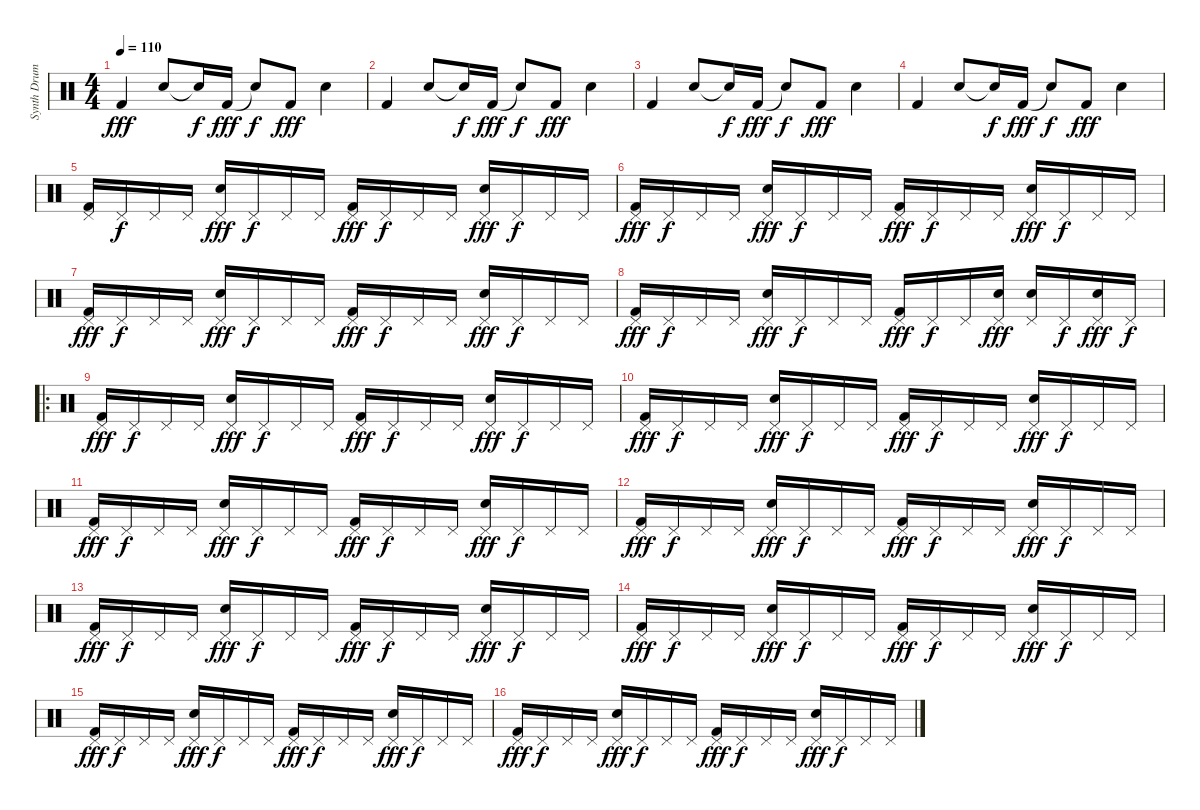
\track ("Synth Drums" "Synth Drum") {instrument percussion}
\staff {score}
\articulation defaults
\ts (4 4)
\tempo 110
\clef neutral
\ks c "Kick (hit) 2".4{dy fff} "Snare (hit) 2".8 "Snare (hit)"{t}.16{dy f} "Kick (hit) 2".16{dy fff} "Snare (hit)"{t}.8{dy f} "Kick (hit) 2".8{dy fff} "Snare (hit) 2".4
|
"Kick (hit) 2".4 "Snare (hit) 2".8 "Snare (hit)"{t}.16{dy f} "Kick (hit) 2".16{dy fff} "Snare (hit)"{t}.8{dy f} "Kick (hit) 2".8{dy fff} "Snare (hit) 2".4 |
"Kick (hit) 2".4 "Snare (hit) 2".8 "Snare (hit)"{t}.16{dy f} "Kick (hit) 2".16{dy fff} "Snare (hit)"{t}.8{dy f} "Kick (hit) 2".8{dy fff} "Snare (hit) 2".4 |
"Kick (hit) 2".4 "Snare (hit) 2".8 "Snare (hit)"{t}.16{dy f} "Kick (hit) 2".16{dy fff} "Snare (hit)"{t}.8{dy f} "Kick (hit) 2".8{dy fff} "Snare (hit) 2".4 |
("Pedal Hi-Hat (hit)" "Kick (hit) 2").16 "Pedal Hi-Hat (hit)".16{dy f} "Pedal Hi-Hat (hit)".16 "Pedal Hi-Hat (hit)".16 ("Pedal Hi-Hat (hit)" "Snare (hit) 2").16{dy fff} "Pedal Hi-Hat (hit)".16{dy f} "Pedal Hi-Hat (hit)".16 "Pedal Hi-Hat (hit)".16 ("Pedal Hi-Hat (hit)" "Kick (hit) 2").16{dy fff} "Pedal Hi-Hat (hit)".16{dy f} "Pedal Hi-Hat (hit)".16 "Pedal Hi-Hat (hit)".16 ("Pedal Hi-Hat (hit)" "Snare (hit) 2").16{dy fff} "Pedal Hi-Hat (hit)".16{dy f} "Pedal Hi-Hat (hit)".16 "Pedal Hi-Hat (hit)".16 |
("Pedal Hi-Hat (hit)" "Kick (hit) 2").16{dy fff} "Pedal Hi-Hat (hit)".16{dy f} "Pedal Hi-Hat (hit)".16 "Pedal Hi-Hat (hit)".16 ("Pedal Hi-Hat (hit)" "Snare (hit) 2").16{dy fff} "Pedal Hi-Hat (hit)".16{dy f} "Pedal Hi-Hat (hit)".16 "Pedal Hi-Hat (hit)".16 ("Pedal Hi-Hat (hit)" "Kick (hit) 2").16{dy fff} "Pedal Hi-Hat (hit)".16{dy f} "Pedal Hi-Hat (hit)".16 "Pedal Hi-Hat (hit)".16 ("Pedal Hi-Hat (hit)" "Snare (hit) 2").16{dy fff} "Pedal Hi-Hat (hit)".16{dy f} "Pedal Hi-Hat (hit)".16 "Pedal Hi-Hat (hit)".16 |
("Pedal Hi-Hat (hit)" "Kick (hit) 2").16{dy fff} "Pedal Hi-Hat (hit)".16{dy f} "Pedal Hi-Hat (hit)".16 "Pedal Hi-Hat (hit)".16 ("Pedal Hi-Hat (hit)" "Snare (hit) 2").16{dy fff} "Pedal Hi-Hat (hit)".16{dy f} "Pedal Hi-Hat (hit)".16 "Pedal Hi-Hat (hit)".16 ("Pedal Hi-Hat (hit)" "Kick (hit) 2").16{dy fff} "Pedal Hi-Hat (hit)".16{dy f} "Pedal Hi-Hat (hit)".16 "Pedal Hi-Hat (hit)".16 ("Pedal Hi-Hat (hit)" "Snare (hit) 2").16{dy fff} "Pedal Hi-Hat (hit)".16{dy f} "Pedal Hi-Hat (hit)".16 "Pedal Hi-Hat (hit)".16 |
("Pedal Hi-Hat (hit)" "Kick (hit) 2").16{dy fff} "Pedal Hi-Hat (hit)".16{dy f} "Pedal Hi-Hat (hit)".16 "Pedal Hi-Hat (hit)".16 ("Pedal Hi-Hat (hit)" "Snare (hit) 2").16{dy fff} "Pedal Hi-Hat (hit)".16{dy f} "Pedal Hi-Hat (hit)".16 "Pedal Hi-Hat (hit)".16 ("Pedal Hi-Hat (hit)" "Kick (hit) 2").16{dy fff} "Pedal Hi-Hat (hit)".16{dy f} "Pedal Hi-Hat (hit)".16 ("Pedal Hi-Hat (hit)" "Snare (hit) 2").16{dy fff} ("Pedal Hi-Hat (hit)" "Snare (hit) 2").16 "Pedal Hi-Hat (hit)".16{dy f} ("Pedal Hi-Hat (hit)" "Snare (hit) 2").16{dy fff} "Pedal Hi-Hat (hit)".16{dy f} |
\ro
("Pedal Hi-Hat (hit)" "Kick (hit) 2").16{dy fff} "Pedal Hi-Hat (hit)".16{dy f} "Pedal Hi-Hat (hit)".16 "Pedal Hi-Hat (hit)".16 ("Pedal Hi-Hat (hit)" "Snare (hit) 2").16{dy fff} "Pedal Hi-Hat (hit)".16{dy f} "Pedal Hi-Hat (hit)".16 "Pedal Hi-Hat (hit)".16 ("Pedal Hi-Hat (hit)" "Kick (hit) 2").16{dy fff} "Pedal Hi-Hat (hit)".16{dy f} "Pedal Hi-Hat (hit)".16 "Pedal Hi-Hat (hit)".16 ("Pedal Hi-Hat (hit)" "Snare (hit) 2").16{dy fff} "Pedal Hi-Hat (hit)".16{dy f} "Pedal Hi-Hat (hit)".16 "Pedal Hi-Hat (hit)".16 |
("Pedal Hi-Hat (hit)" "Kick (hit) 2").16{dy fff} "Pedal Hi-Hat (hit)".16{dy f} "Pedal Hi-Hat (hit)".16 "Pedal Hi-Hat (hit)".16 ("Pedal Hi-Hat (hit)" "Snare (hit) 2").16{dy fff} "Pedal Hi-Hat (hit)".16{dy f} "Pedal Hi-Hat (hit)".16 "Pedal Hi-Hat (hit)".16 ("Pedal Hi-Hat (hit)" "Kick (hit) 2").16{dy fff} "Pedal Hi-Hat (hit)".16{dy f} "Pedal Hi-Hat (hit)".16 "Pedal Hi-Hat (hit)".16 ("Pedal Hi-Hat (hit)" "Snare (hit) 2").16{dy fff} "Pedal Hi-Hat (hit)".16{dy f} "Pedal Hi-Hat (hit)".16 "Pedal Hi-Hat (hit)".16 |
("Pedal Hi-Hat (hit)" "Kick (hit) 2").16{dy fff} "Pedal Hi-Hat (hit)".16{dy f} "Pedal Hi-Hat (hit)".16 "Pedal Hi-Hat (hit)".16 ("Pedal Hi-Hat (hit)" "Snare (hit) 2").16{dy fff} "Pedal Hi-Hat (hit)".16{dy f} "Pedal Hi-Hat (hit)".16 "Pedal Hi-Hat (hit)".16 ("Pedal Hi-Hat (hit)" "Kick (hit) 2").16{dy fff} "Pedal Hi-Hat (hit)".16{dy f} "Pedal Hi-Hat (hit)".16 "Pedal Hi-Hat (hit)".16 ("Pedal Hi-Hat (hit)" "Snare (hit) 2").16{dy fff} "Pedal Hi-Hat (hit)".16{dy f} "Pedal Hi-Hat (hit)".16 "Pedal Hi-Hat (hit)".16 |
("Pedal Hi-Hat (hit)" "Kick (hit) 2").16{dy fff} "Pedal Hi-Hat (hit)".16{dy f} "Pedal Hi-Hat (hit)".16 "Pedal Hi-Hat (hit)".16 ("Pedal Hi-Hat (hit)" "Snare (hit) 2").16{dy fff} "Pedal Hi-Hat (hit)".16{dy f} "Pedal Hi-Hat (hit)".16 "Pedal Hi-Hat (hit)".16 ("Pedal Hi-Hat (hit)" "Kick (hit) 2").16{dy fff} "Pedal Hi-Hat (hit)".16{dy f} "Pedal Hi-Hat (hit)".16 "Pedal Hi-Hat (hit)".16 ("Pedal Hi-Hat (hit)" "Snare (hit) 2").16{dy fff} "Pedal Hi-Hat (hit)".16{dy f} "Pedal Hi-Hat (hit)".16 "Pedal Hi-Hat (hit)".16 |
("Pedal Hi-Hat (hit)" "Kick (hit) 2").16{dy fff} "Pedal Hi-Hat (hit)".16{dy f} "Pedal Hi-Hat (hit)".16 "Pedal Hi-Hat (hit)".16 ("Pedal Hi-Hat (hit)" "Snare (hit) 2").16{dy fff} "Pedal Hi-Hat (hit)".16{dy f} "Pedal Hi-Hat (hit)".16 "Pedal Hi-Hat (hit)".16 ("Pedal Hi-Hat (hit)" "Kick (hit) 2").16{dy fff} "Pedal Hi-Hat (hit)".16{dy f} "Pedal Hi-Hat (hit)".16 "Pedal Hi-Hat (hit)".16 ("Pedal Hi-Hat (hit)" "Snare (hit) 2").16{dy fff} "Pedal Hi-Hat (hit)".16{dy f} "Pedal Hi-Hat (hit)".16 "Pedal Hi-Hat (hit)".16 |
("Pedal Hi-Hat (hit)" "Kick (hit) 2").16{dy fff} "Pedal Hi-Hat (hit)".16{dy f} "Pedal Hi-Hat (hit)".16 "Pedal Hi-Hat (hit)".16 ("Pedal Hi-Hat (hit)" "Snare (hit) 2").16{dy fff} "Pedal Hi-Hat (hit)".16{dy f} "Pedal Hi-Hat (hit)".16 "Pedal Hi-Hat (hit)".16 ("Pedal Hi-Hat (hit)" "Kick (hit) 2").16{dy fff} "Pedal Hi-Hat (hit)".16{dy f} "Pedal Hi-Hat (hit)".16 "Pedal Hi-Hat (hit)".16 ("Pedal Hi-Hat (hit)" "Snare (hit) 2").16{dy fff} "Pedal Hi-Hat (hit)".16{dy f} "Pedal Hi-Hat (hit)".16 "Pedal Hi-Hat (hit)".16 |
("Pedal Hi-Hat (hit)" "Kick (hit) 2").16{dy fff} "Pedal Hi-Hat (hit)".16{dy f} "Pedal Hi-Hat (hit)".16 "Pedal Hi-Hat (hit)".16 ("Pedal Hi-Hat (hit)" "Snare (hit) 2").16{dy fff} "Pedal Hi-Hat (hit)".16{dy f} "Pedal Hi-Hat (hit)".16 "Pedal Hi-Hat (hit)".16 ("Pedal Hi-Hat (hit)" "Kick (hit) 2").16{dy fff} "Pedal Hi-Hat (hit)".16{dy f} "Pedal Hi-Hat (hit)".16 "Pedal Hi-Hat (hit)".16 ("Pedal Hi-Hat (hit)" "Snare (hit) 2").16{dy fff} "Pedal Hi-Hat (hit)".16{dy f} "Pedal Hi-Hat (hit)".16 "Pedal Hi-Hat (hit)".16 |
("Pedal Hi-Hat (hit)" "Kick (hit) 2").16{dy fff} "Pedal Hi-Hat (hit)".16{dy f} "Pedal Hi-Hat (hit)".16 "Pedal Hi-Hat (hit)".16 ("Pedal Hi-Hat (hit)" "Snare (hit) 2").16{dy fff} "Pedal Hi-Hat (hit)".16{dy f} "Pedal Hi-Hat (hit)".16 "Pedal Hi-Hat (hit)".16 ("Pedal Hi-Hat (hit)" "Kick (hit) 2").16{dy fff} "Pedal Hi-Hat (hit)".16{dy f} "Pedal Hi-Hat (hit)".16 "Pedal Hi-Hat (hit)".16 ("Pedal Hi-Hat (hit)" "Snare (hit) 2").16{dy fff} "Pedal Hi-Hat (hit)".16{dy f} "Pedal Hi-Hat (hit)".16 "Pedal Hi-Hat (hit)".16
